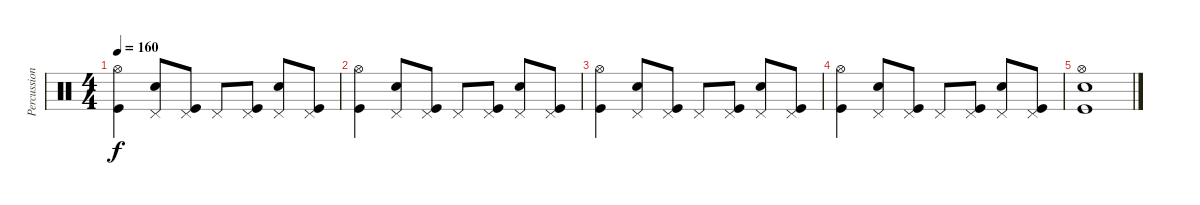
\track ("Percussion" "Percussion") {instrument percussion}
\staff
\articulation defaults
\ts (4 4)
\tempo 160
\clef neutral
\ks c
("Hi-Hat (open)" "Kick (hit)").4{dy f} ("Pedal Hi-Hat (hit)" "Electric Snare (hit)").8 ("Pedal Hi-Hat (hit)" "Kick (hit)").8 "Pedal Hi-Hat (hit)".8 ("Pedal Hi-Hat (hit)" "Kick (hit)").8 ("Pedal Hi-Hat (hit)" "Electric Snare (hit)").8 ("Pedal Hi-Hat (hit)" "Kick (hit)").8 |
("Hi-Hat (open)" "Kick (hit)").4 ("Pedal Hi-Hat (hit)" "Electric Snare (hit)").8 ("Pedal Hi-Hat (hit)" "Kick (hit)").8 "Pedal Hi-Hat (hit)".8 ("Pedal Hi-Hat (hit)" "Kick (hit)").8 ("Pedal Hi-Hat (hit)" "Electric Snare (hit)").8 ("Pedal Hi-Hat (hit)" "Kick (hit)").8 |
("Hi-Hat (open)" "Kick (hit)").4 ("Pedal Hi-Hat (hit)" "Electric Snare (hit)").8 ("Pedal Hi-Hat (hit)" "Kick (hit)").8 "Pedal Hi-Hat (hit)".8 ("Pedal Hi-Hat (hit)" "Kick (hit)").8 ("Pedal Hi-Hat (hit)" "Electric Snare (hit)").8 ("Pedal Hi-Hat (hit)" "Kick (hit)").8 |
("Hi-Hat (open)" "Kick (hit)").4 ("Pedal Hi-Hat (hit)" "Electric Snare (hit)").8 ("Pedal Hi-Hat (hit)" "Kick (hit)").8 "Pedal Hi-Hat (hit)".8 ("Pedal Hi-Hat (hit)" "Kick (hit)").8 ("Pedal Hi-Hat (hit)" "Electric Snare (hit)").8 ("Pedal Hi-Hat (hit)" "Kick (hit)").8 |
("Hi-Hat (open)" "Electric Snare (hit)" "Kick (hit)").1
